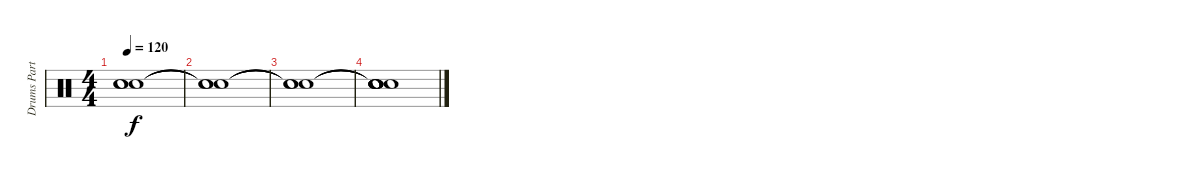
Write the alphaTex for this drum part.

\track ("Drums Part" "Drums Part") {instrument percussion}
\staff {score}
\articulation defaults
\ts (4 4)
\tempo 120
\clef neutral
\ks c
("Snare (hit)"{t} "Snare (hit)"{t} "Snare (hit)"{t}).1{dy f} |
("Snare (hit)"{t} "Snare (hit)"{t} "Snare (hit)"{t}).1 |
("Snare (hit)"{t} "Snare (hit)"{t} "Snare (hit)"{t}).1 |
("Snare (hit)"{t} "Snare (hit)"{t} "Snare (hit)"{t} "Snare (hit)" "Snare (hit)" "Snare (hit)").1
